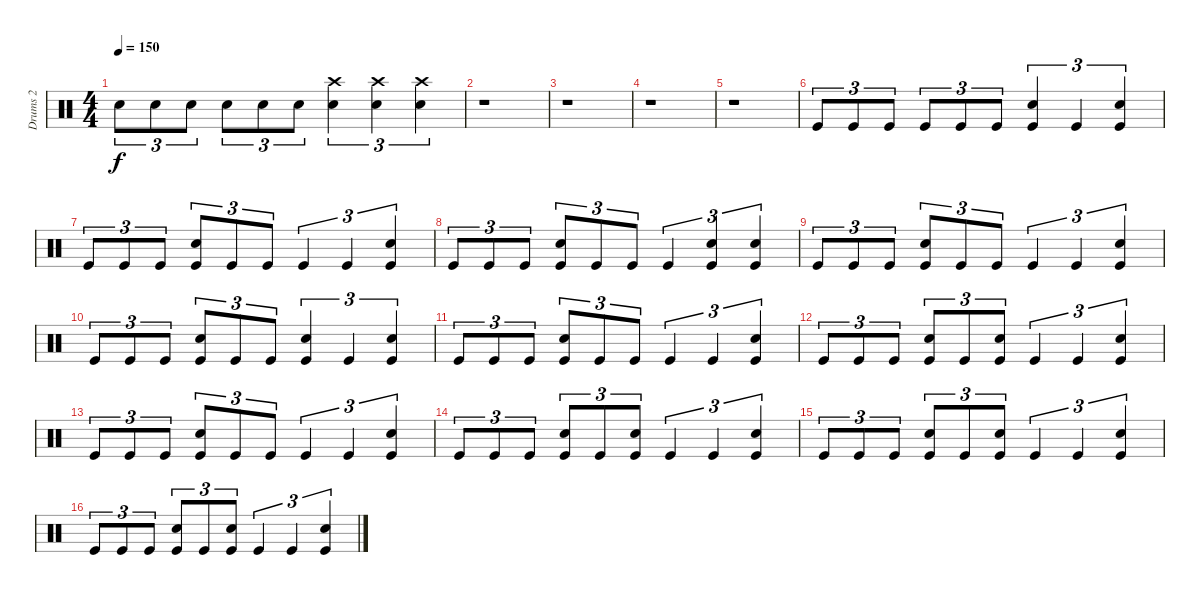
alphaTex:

\track ("Drums 2" "Drums 2") {instrument percussion}
\staff {score}
\articulation defaults
\ts (4 4)
\tempo 150
\clef neutral
\ks c "Snare (hit) 2".8{tu (3 2) dy f} "Snare (hit) 2".8{tu (3 2)} "Snare (hit) 2".8{tu (3 2)} "Snare (hit) 2".8{tu (3 2)} "Snare (hit) 2".8{tu (3 2)} "Snare (hit) 2".8{tu (3 2)}
("Crash high (hit)" "Snare (hit) 2").4{tu (3 2)} ("Crash high (hit)" "Snare (hit) 2").4{tu (3 2)} ("Crash high (hit)" "Snare (hit) 2").4{tu (3 2)} |
r.1 |
r.1 |
r.1 |
r.1 |
"Kick (hit)".8{tu (3 2)} "Kick (hit)".8{tu (3 2)} "Kick (hit)".8{tu (3 2)} "Kick (hit)".8{tu (3 2)} "Kick (hit)".8{tu (3 2)} "Kick (hit)".8{tu (3 2)} ("Snare (hit) 2" "Kick (hit)").4{tu (3 2)} "Kick (hit)".4{tu (3 2)} ("Snare (hit) 2" "Kick (hit)").4{tu (3 2)} |
"Kick (hit)".8{tu (3 2)} "Kick (hit)".8{tu (3 2)} "Kick (hit)".8{tu (3 2)} ("Snare (hit) 2" "Kick (hit)").8{tu (3 2)} "Kick (hit)".8{tu (3 2)} "Kick (hit)".8{tu (3 2)} "Kick (hit)".4{tu (3 2)} "Kick (hit)".4{tu (3 2)} ("Snare (hit) 2" "Kick (hit)").4{tu (3 2)} |
"Kick (hit)".8{tu (3 2)} "Kick (hit)".8{tu (3 2)} "Kick (hit)".8{tu (3 2)} ("Snare (hit) 2" "Kick (hit)").8{tu (3 2)} "Kick (hit)".8{tu (3 2)} "Kick (hit)".8{tu (3 2)} "Kick (hit)".4{tu (3 2)} ("Snare (hit) 2" "Kick (hit)").4{tu (3 2)} ("Snare (hit) 2" "Kick (hit)").4{tu (3 2)} |
"Kick (hit)".8{tu (3 2)} "Kick (hit)".8{tu (3 2)} "Kick (hit)".8{tu (3 2)} ("Snare (hit) 2" "Kick (hit)").8{tu (3 2)} "Kick (hit)".8{tu (3 2)} "Kick (hit)".8{tu (3 2)} "Kick (hit)".4{tu (3 2)} "Kick (hit)".4{tu (3 2)} ("Snare (hit) 2" "Kick (hit)").4{tu (3 2)} |
"Kick (hit)".8{tu (3 2)} "Kick (hit)".8{tu (3 2)} "Kick (hit)".8{tu (3 2)} ("Snare (hit) 2" "Kick (hit)").8{tu (3 2)} "Kick (hit)".8{tu (3 2)} "Kick (hit)".8{tu (3 2)} ("Snare (hit) 2" "Kick (hit)").4{tu (3 2)} "Kick (hit)".4{tu (3 2)} ("Snare (hit) 2" "Kick (hit)").4{tu (3 2)} |
"Kick (hit)".8{tu (3 2)} "Kick (hit)".8{tu (3 2)} "Kick (hit)".8{tu (3 2)} ("Snare (hit) 2" "Kick (hit)").8{tu (3 2)} "Kick (hit)".8{tu (3 2)} "Kick (hit)".8{tu (3 2)} "Kick (hit)".4{tu (3 2)} "Kick (hit)".4{tu (3 2)} ("Snare (hit) 2" "Kick (hit)").4{tu (3 2)} |
"Kick (hit)".8{tu (3 2)} "Kick (hit)".8{tu (3 2)} "Kick (hit)".8{tu (3 2)} ("Snare (hit) 2" "Kick (hit)").8{tu (3 2)} "Kick (hit)".8{tu (3 2)} ("Snare (hit) 2" "Kick (hit)").8{tu (3 2)} "Kick (hit)".4{tu (3 2)} "Kick (hit)".4{tu (3 2)} ("Snare (hit) 2" "Kick (hit)").4{tu (3 2)} |
"Kick (hit)".8{tu (3 2)} "Kick (hit)".8{tu (3 2)} "Kick (hit)".8{tu (3 2)} ("Snare (hit) 2" "Kick (hit)").8{tu (3 2)} "Kick (hit)".8{tu (3 2)} "Kick (hit)".8{tu (3 2)} "Kick (hit)".4{tu (3 2)} "Kick (hit)".4{tu (3 2)} ("Snare (hit) 2" "Kick (hit)").4{tu (3 2)} |
"Kick (hit)".8{tu (3 2)} "Kick (hit)".8{tu (3 2)} "Kick (hit)".8{tu (3 2)} ("Snare (hit) 2" "Kick (hit)").8{tu (3 2)} "Kick (hit)".8{tu (3 2)} ("Snare (hit) 2" "Kick (hit)").8{tu (3 2)} "Kick (hit)".4{tu (3 2)} "Kick (hit)".4{tu (3 2)} ("Snare (hit) 2" "Kick (hit)").4{tu (3 2)} |
"Kick (hit)".8{tu (3 2)} "Kick (hit)".8{tu (3 2)} "Kick (hit)".8{tu (3 2)} ("Snare (hit) 2" "Kick (hit)").8{tu (3 2)} "Kick (hit)".8{tu (3 2)} ("Snare (hit) 2" "Kick (hit)").8{tu (3 2)} "Kick (hit)".4{tu (3 2)} "Kick (hit)".4{tu (3 2)} ("Snare (hit) 2" "Kick (hit)").4{tu (3 2)} |
"Kick (hit)".8{tu (3 2)} "Kick (hit)".8{tu (3 2)} "Kick (hit)".8{tu (3 2)} ("Snare (hit) 2" "Kick (hit)").8{tu (3 2)} "Kick (hit)".8{tu (3 2)} ("Snare (hit) 2" "Kick (hit)").8{tu (3 2)} "Kick (hit)".4{tu (3 2)} "Kick (hit)".4{tu (3 2)} ("Snare (hit) 2" "Kick (hit)").4{tu (3 2)}
